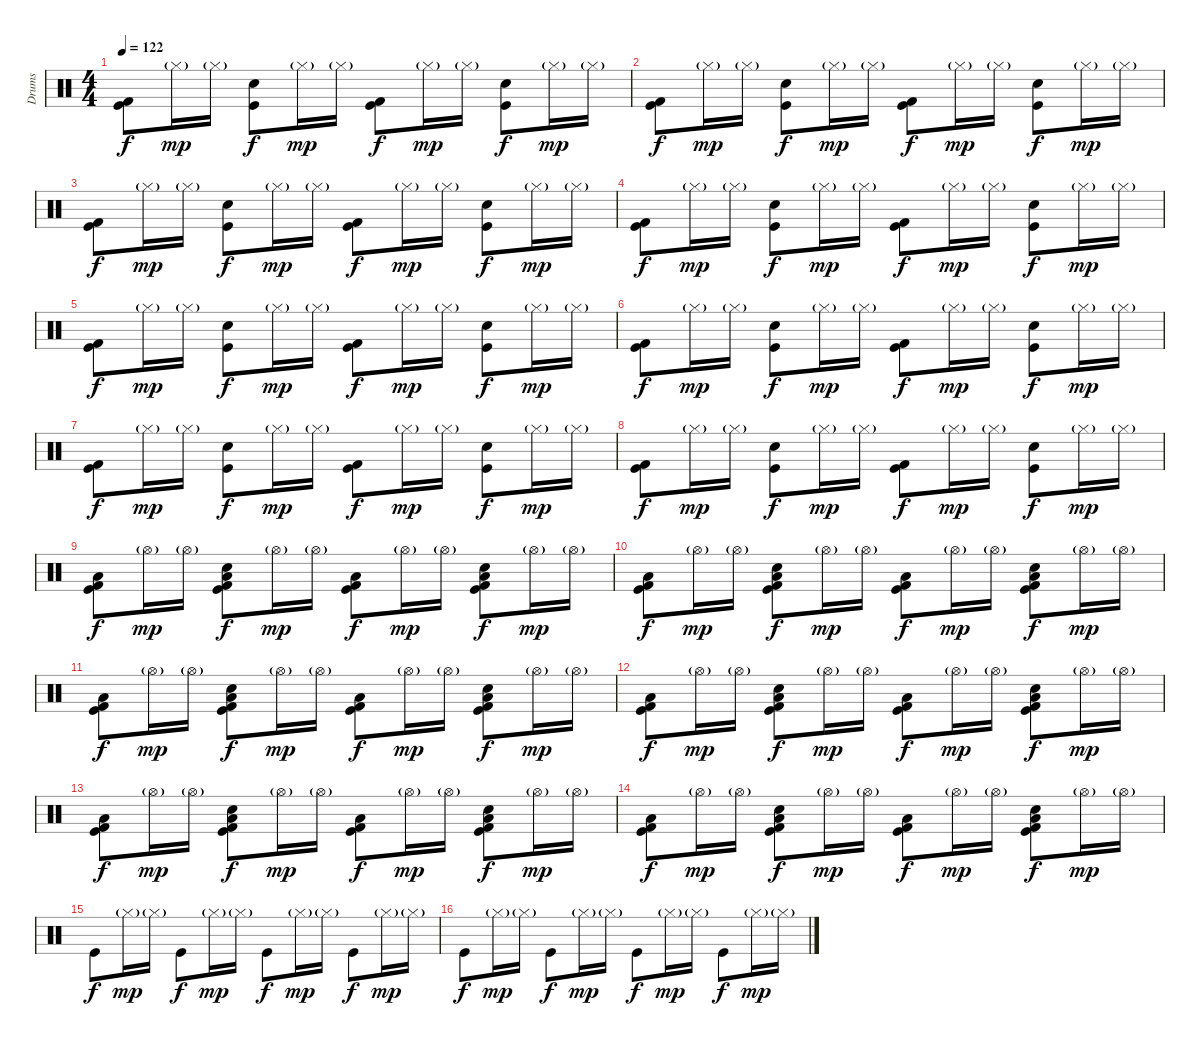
\track ("Drums" "Drums") {instrument percussion}
\staff {score}
\articulation defaults
\ts (4 4)
\tempo 122
\clef neutral
\ks c
("Kick (hit)" "Kick (hit) 2").8{dy f volume 16} "Hi-Hat (closed)"{g}.16{dy mp} "Hi-Hat (closed)"{g}.16 ("Electric Snare (hit)" "Kick (hit)").8{dy f} "Hi-Hat (closed)"{g}.16{dy mp} "Hi-Hat (closed)"{g}.16 ("Kick (hit)" "Kick (hit) 2").8{dy f} "Hi-Hat (closed)"{g}.16{dy mp} "Hi-Hat (closed)"{g}.16 ("Electric Snare (hit)" "Kick (hit)").8{dy f} "Hi-Hat (closed)"{g}.16{dy mp} "Hi-Hat (closed)"{g}.16 |
("Kick (hit)" "Kick (hit) 2").8{dy f} "Hi-Hat (closed)"{g}.16{dy mp} "Hi-Hat (closed)"{g}.16 ("Electric Snare (hit)" "Kick (hit)").8{dy f} "Hi-Hat (closed)"{g}.16{dy mp} "Hi-Hat (closed)"{g}.16 ("Kick (hit)" "Kick (hit) 2").8{dy f} "Hi-Hat (closed)"{g}.16{dy mp} "Hi-Hat (closed)"{g}.16 ("Electric Snare (hit)" "Kick (hit)").8{dy f} "Hi-Hat (closed)"{g}.16{dy mp} "Hi-Hat (closed)"{g}.16 |
("Kick (hit)" "Kick (hit) 2").8{dy f} "Hi-Hat (closed)"{g}.16{dy mp} "Hi-Hat (closed)"{g}.16 ("Electric Snare (hit)" "Kick (hit)").8{dy f} "Hi-Hat (closed)"{g}.16{dy mp} "Hi-Hat (closed)"{g}.16 ("Kick (hit)" "Kick (hit) 2").8{dy f} "Hi-Hat (closed)"{g}.16{dy mp} "Hi-Hat (closed)"{g}.16 ("Electric Snare (hit)" "Kick (hit)").8{dy f} "Hi-Hat (closed)"{g}.16{dy mp} "Hi-Hat (closed)"{g}.16 |
("Kick (hit)" "Kick (hit) 2").8{dy f} "Hi-Hat (closed)"{g}.16{dy mp} "Hi-Hat (closed)"{g}.16 ("Electric Snare (hit)" "Kick (hit)").8{dy f} "Hi-Hat (closed)"{g}.16{dy mp} "Hi-Hat (closed)"{g}.16 ("Kick (hit)" "Kick (hit) 2").8{dy f} "Hi-Hat (closed)"{g}.16{dy mp} "Hi-Hat (closed)"{g}.16 ("Electric Snare (hit)" "Kick (hit)").8{dy f} "Hi-Hat (closed)"{g}.16{dy mp} "Hi-Hat (closed)"{g}.16 |
("Kick (hit)" "Kick (hit) 2").8{dy f} "Hi-Hat (closed)"{g}.16{dy mp} "Hi-Hat (closed)"{g}.16 ("Electric Snare (hit)" "Kick (hit)").8{dy f} "Hi-Hat (closed)"{g}.16{dy mp} "Hi-Hat (closed)"{g}.16 ("Kick (hit)" "Kick (hit) 2").8{dy f} "Hi-Hat (closed)"{g}.16{dy mp} "Hi-Hat (closed)"{g}.16 ("Electric Snare (hit)" "Kick (hit)").8{dy f} "Hi-Hat (closed)"{g}.16{dy mp} "Hi-Hat (closed)"{g}.16 |
("Kick (hit)" "Kick (hit) 2").8{dy f} "Hi-Hat (closed)"{g}.16{dy mp} "Hi-Hat (closed)"{g}.16 ("Electric Snare (hit)" "Kick (hit)").8{dy f} "Hi-Hat (closed)"{g}.16{dy mp} "Hi-Hat (closed)"{g}.16 ("Kick (hit)" "Kick (hit) 2").8{dy f} "Hi-Hat (closed)"{g}.16{dy mp} "Hi-Hat (closed)"{g}.16 ("Electric Snare (hit)" "Kick (hit)").8{dy f} "Hi-Hat (closed)"{g}.16{dy mp} "Hi-Hat (closed)"{g}.16 |
("Kick (hit)" "Kick (hit) 2").8{dy f} "Hi-Hat (closed)"{g}.16{dy mp} "Hi-Hat (closed)"{g}.16 ("Electric Snare (hit)" "Kick (hit)").8{dy f} "Hi-Hat (closed)"{g}.16{dy mp} "Hi-Hat (closed)"{g}.16 ("Kick (hit)" "Kick (hit) 2").8{dy f} "Hi-Hat (closed)"{g}.16{dy mp} "Hi-Hat (closed)"{g}.16 ("Electric Snare (hit)" "Kick (hit)").8{dy f} "Hi-Hat (closed)"{g}.16{dy mp} "Hi-Hat (closed)"{g}.16 |
("Kick (hit)" "Kick (hit) 2").8{dy f} "Hi-Hat (closed)"{g}.16{dy mp} "Hi-Hat (closed)"{g}.16 ("Electric Snare (hit)" "Kick (hit)").8{dy f} "Hi-Hat (closed)"{g}.16{dy mp} "Hi-Hat (closed)"{g}.16 ("Kick (hit)" "Kick (hit) 2").8{dy f} "Hi-Hat (closed)"{g}.16{dy mp} "Hi-Hat (closed)"{g}.16 ("Electric Snare (hit)" "Kick (hit)").8{dy f} "Hi-Hat (closed)"{g}.16{dy mp} "Hi-Hat (closed)"{g}.16 |
("Kick (hit)" "Kick (hit) 2" "Low Floor Tom (hit)").8{dy f} "Hi-Hat (open)"{g}.16{dy mp} "Hi-Hat (open)"{g}.16 ("Electric Snare (hit)" "Kick (hit)" "Kick (hit) 2" "Low Floor Tom (hit)").8{dy f} "Hi-Hat (open)"{g}.16{dy mp} "Hi-Hat (open)"{g}.16 ("Kick (hit)" "Kick (hit) 2" "Low Floor Tom (hit)").8{dy f} "Hi-Hat (open)"{g}.16{dy mp} "Hi-Hat (open)"{g}.16 ("Electric Snare (hit)" "Kick (hit)" "Kick (hit) 2" "Low Floor Tom (hit)").8{dy f} "Hi-Hat (open)"{g}.16{dy mp} "Hi-Hat (open)"{g}.16 |
("Kick (hit)" "Kick (hit) 2" "Low Floor Tom (hit)").8{dy f} "Hi-Hat (open)"{g}.16{dy mp} "Hi-Hat (open)"{g}.16 ("Electric Snare (hit)" "Kick (hit)" "Kick (hit) 2" "Low Floor Tom (hit)").8{dy f} "Hi-Hat (open)"{g}.16{dy mp} "Hi-Hat (open)"{g}.16 ("Kick (hit)" "Kick (hit) 2" "Low Floor Tom (hit)").8{dy f} "Hi-Hat (open)"{g}.16{dy mp} "Hi-Hat (open)"{g}.16 ("Electric Snare (hit)" "Kick (hit)" "Kick (hit) 2" "Low Floor Tom (hit)").8{dy f} "Hi-Hat (open)"{g}.16{dy mp} "Hi-Hat (open)"{g}.16 |
("Kick (hit)" "Kick (hit) 2" "Low Floor Tom (hit)").8{dy f} "Hi-Hat (open)"{g}.16{dy mp} "Hi-Hat (open)"{g}.16 ("Electric Snare (hit)" "Kick (hit)" "Kick (hit) 2" "Low Floor Tom (hit)").8{dy f} "Hi-Hat (open)"{g}.16{dy mp} "Hi-Hat (open)"{g}.16 ("Kick (hit)" "Kick (hit) 2" "Low Floor Tom (hit)").8{dy f} "Hi-Hat (open)"{g}.16{dy mp} "Hi-Hat (open)"{g}.16 ("Electric Snare (hit)" "Kick (hit)" "Kick (hit) 2" "Low Floor Tom (hit)").8{dy f} "Hi-Hat (open)"{g}.16{dy mp} "Hi-Hat (open)"{g}.16 |
("Kick (hit)" "Kick (hit) 2" "Low Floor Tom (hit)").8{dy f} "Hi-Hat (open)"{g}.16{dy mp} "Hi-Hat (open)"{g}.16 ("Electric Snare (hit)" "Kick (hit)" "Kick (hit) 2" "Low Floor Tom (hit)").8{dy f} "Hi-Hat (open)"{g}.16{dy mp} "Hi-Hat (open)"{g}.16 ("Kick (hit)" "Kick (hit) 2" "Low Floor Tom (hit)").8{dy f} "Hi-Hat (open)"{g}.16{dy mp} "Hi-Hat (open)"{g}.16 ("Electric Snare (hit)" "Kick (hit)" "Kick (hit) 2" "Low Floor Tom (hit)").8{dy f} "Hi-Hat (open)"{g}.16{dy mp} "Hi-Hat (open)"{g}.16 |
("Kick (hit)" "Kick (hit) 2" "Low Floor Tom (hit)").8{dy f} "Hi-Hat (open)"{g}.16{dy mp} "Hi-Hat (open)"{g}.16 ("Electric Snare (hit)" "Kick (hit)" "Kick (hit) 2" "Low Floor Tom (hit)").8{dy f} "Hi-Hat (open)"{g}.16{dy mp} "Hi-Hat (open)"{g}.16 ("Kick (hit)" "Kick (hit) 2" "Low Floor Tom (hit)").8{dy f} "Hi-Hat (open)"{g}.16{dy mp} "Hi-Hat (open)"{g}.16 ("Electric Snare (hit)" "Kick (hit)" "Kick (hit) 2" "Low Floor Tom (hit)").8{dy f} "Hi-Hat (open)"{g}.16{dy mp} "Hi-Hat (open)"{g}.16 |
("Kick (hit)" "Kick (hit) 2" "Low Floor Tom (hit)").8{dy f} "Hi-Hat (open)"{g}.16{dy mp} "Hi-Hat (open)"{g}.16 ("Electric Snare (hit)" "Kick (hit)" "Kick (hit) 2" "Low Floor Tom (hit)").8{dy f} "Hi-Hat (open)"{g}.16{dy mp} "Hi-Hat (open)"{g}.16 ("Kick (hit)" "Kick (hit) 2" "Low Floor Tom (hit)").8{dy f} "Hi-Hat (open)"{g}.16{dy mp} "Hi-Hat (open)"{g}.16 ("Electric Snare (hit)" "Kick (hit)" "Kick (hit) 2" "Low Floor Tom (hit)").8{dy f} "Hi-Hat (open)"{g}.16{dy mp} "Hi-Hat (open)"{g}.16 |
"Kick (hit)".8{dy f volume 8} "Hi-Hat (closed)"{g}.16{dy mp} "Hi-Hat (closed)"{g}.16 "Kick (hit)".8{dy f} "Hi-Hat (closed)"{g}.16{dy mp} "Hi-Hat (closed)"{g}.16 "Kick (hit)".8{dy f} "Hi-Hat (closed)"{g}.16{dy mp} "Hi-Hat (closed)"{g}.16 "Kick (hit)".8{dy f} "Hi-Hat (closed)"{g}.16{dy mp} "Hi-Hat (closed)"{g}.16 |
"Kick (hit)".8{dy f} "Hi-Hat (closed)"{g}.16{dy mp} "Hi-Hat (closed)"{g}.16 "Kick (hit)".8{dy f} "Hi-Hat (closed)"{g}.16{dy mp} "Hi-Hat (closed)"{g}.16 "Kick (hit)".8{dy f} "Hi-Hat (closed)"{g}.16{dy mp} "Hi-Hat (closed)"{g}.16 "Kick (hit)".8{dy f} "Hi-Hat (closed)"{g}.16{dy mp} "Hi-Hat (closed)"{g}.16
